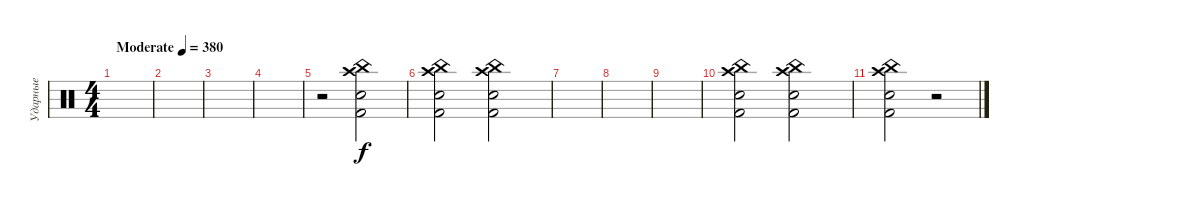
\track ("Ударные" "Ударные") {instrument percussion}
\staff {score}
\articulation defaults
\ts (4 4)
\tempo (380 "Moderate")
\clef neutral
\ks c
|
|
|
|
r.2 ("Kick (hit) 2" "Electric Snare (hit)" "Crash high (hit)" "China (hit)").2 |
("China (hit)" "Crash high (hit)" "Kick (hit) 2" "Electric Snare (hit)").2 ("Electric Snare (hit)" "Kick (hit) 2" "Crash high (hit)" "China (hit)").2 |
|
|
|
("China (hit)" "Crash high (hit)" "Kick (hit) 2" "Electric Snare (hit)").2 ("Kick (hit) 2" "Electric Snare (hit)" "Crash high (hit)" "China (hit)").2 |
("China (hit)" "Crash high (hit)" "Kick (hit) 2" "Electric Snare (hit)").2 r.2
